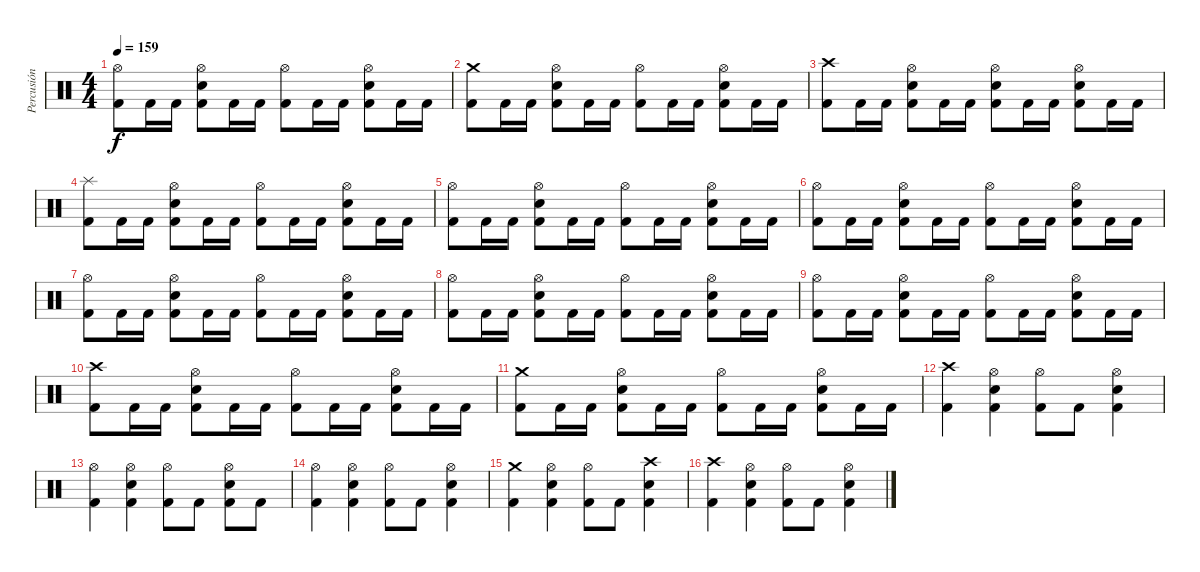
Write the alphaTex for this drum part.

\track ("Percusión" "Percusión") {instrument percussion}
\staff {score}
\articulation defaults
\ts (4 4)
\tempo 159
\clef neutral
\ks c
("Hi-Hat (open)" "Kick (hit) 2").8{dy f} "Kick (hit) 2".16 "Kick (hit) 2".16 ("Hi-Hat (open)" "Electric Snare (hit)" "Kick (hit) 2").8 "Kick (hit) 2".16 "Kick (hit) 2".16 ("Hi-Hat (open)" "Kick (hit) 2").8 "Kick (hit) 2".16 "Kick (hit) 2".16 ("Hi-Hat (open)" "Electric Snare (hit)" "Kick (hit) 2").8 "Kick (hit) 2".16 "Kick (hit) 2".16 |
("Crash medium (hit)" "Kick (hit) 2").8 "Kick (hit) 2".16 "Kick (hit) 2".16 ("Hi-Hat (open)" "Electric Snare (hit)" "Kick (hit) 2").8 "Kick (hit) 2".16 "Kick (hit) 2".16 ("Hi-Hat (open)" "Kick (hit) 2").8 "Kick (hit) 2".16 "Kick (hit) 2".16 ("Hi-Hat (open)" "Electric Snare (hit)" "Kick (hit) 2").8 "Kick (hit) 2".16 "Kick (hit) 2".16 |
("Crash high (hit)" "Kick (hit) 2").8 "Kick (hit) 2".16 "Kick (hit) 2".16 ("Hi-Hat (open)" "Electric Snare (hit)" "Kick (hit) 2").8 "Kick (hit) 2".16 "Kick (hit) 2".16 ("Hi-Hat (open)" "Electric Snare (hit)" "Kick (hit) 2").8 "Kick (hit) 2".16 "Kick (hit) 2".16 ("Hi-Hat (open)" "Electric Snare (hit)" "Kick (hit) 2").8 "Kick (hit) 2".16 "Kick (hit) 2".16 |
("Splash (hit)" "Kick (hit) 2").8 "Kick (hit) 2".16 "Kick (hit) 2".16 ("Hi-Hat (open)" "Electric Snare (hit)" "Kick (hit) 2").8 "Kick (hit) 2".16 "Kick (hit) 2".16 ("Hi-Hat (open)" "Kick (hit) 2").8 "Kick (hit) 2".16 "Kick (hit) 2".16 ("Hi-Hat (open)" "Electric Snare (hit)" "Kick (hit) 2").8 "Kick (hit) 2".16 "Kick (hit) 2".16 |
("Hi-Hat (open)" "Kick (hit) 2").8 "Kick (hit) 2".16 "Kick (hit) 2".16 ("Hi-Hat (open)" "Electric Snare (hit)" "Kick (hit) 2").8 "Kick (hit) 2".16 "Kick (hit) 2".16 ("Hi-Hat (open)" "Kick (hit) 2").8 "Kick (hit) 2".16 "Kick (hit) 2".16 ("Hi-Hat (open)" "Electric Snare (hit)" "Kick (hit) 2").8 "Kick (hit) 2".16 "Kick (hit) 2".16 |
("Hi-Hat (open)" "Kick (hit) 2").8 "Kick (hit) 2".16 "Kick (hit) 2".16 ("Hi-Hat (open)" "Electric Snare (hit)" "Kick (hit) 2").8 "Kick (hit) 2".16 "Kick (hit) 2".16 ("Hi-Hat (open)" "Kick (hit) 2").8 "Kick (hit) 2".16 "Kick (hit) 2".16 ("Hi-Hat (open)" "Electric Snare (hit)" "Kick (hit) 2").8 "Kick (hit) 2".16 "Kick (hit) 2".16 |
("Hi-Hat (open)" "Kick (hit) 2").8 "Kick (hit) 2".16 "Kick (hit) 2".16 ("Hi-Hat (open)" "Electric Snare (hit)" "Kick (hit) 2").8 "Kick (hit) 2".16 "Kick (hit) 2".16 ("Hi-Hat (open)" "Kick (hit) 2").8 "Kick (hit) 2".16 "Kick (hit) 2".16 ("Hi-Hat (open)" "Electric Snare (hit)" "Kick (hit) 2").8 "Kick (hit) 2".16 "Kick (hit) 2".16 |
("Hi-Hat (open)" "Kick (hit) 2").8 "Kick (hit) 2".16 "Kick (hit) 2".16 ("Hi-Hat (open)" "Electric Snare (hit)" "Kick (hit) 2").8 "Kick (hit) 2".16 "Kick (hit) 2".16 ("Hi-Hat (open)" "Kick (hit) 2").8 "Kick (hit) 2".16 "Kick (hit) 2".16 ("Hi-Hat (open)" "Electric Snare (hit)" "Kick (hit) 2").8 "Kick (hit) 2".16 "Kick (hit) 2".16 |
("Hi-Hat (open)" "Kick (hit) 2").8 "Kick (hit) 2".16 "Kick (hit) 2".16 ("Hi-Hat (open)" "Electric Snare (hit)" "Kick (hit) 2").8 "Kick (hit) 2".16 "Kick (hit) 2".16 ("Hi-Hat (open)" "Kick (hit) 2").8 "Kick (hit) 2".16 "Kick (hit) 2".16 ("Hi-Hat (open)" "Electric Snare (hit)" "Kick (hit) 2").8 "Kick (hit) 2".16 "Kick (hit) 2".16 |
("Crash high (hit)" "Kick (hit) 2").8 "Kick (hit) 2".16 "Kick (hit) 2".16 ("Hi-Hat (open)" "Electric Snare (hit)" "Kick (hit) 2").8 "Kick (hit) 2".16 "Kick (hit) 2".16 ("Hi-Hat (open)" "Kick (hit) 2").8 "Kick (hit) 2".16 "Kick (hit) 2".16 ("Hi-Hat (open)" "Electric Snare (hit)" "Kick (hit) 2").8 "Kick (hit) 2".16 "Kick (hit) 2".16 |
("Crash medium (hit)" "Kick (hit) 2").8 "Kick (hit) 2".16 "Kick (hit) 2".16 ("Hi-Hat (open)" "Electric Snare (hit)" "Kick (hit) 2").8 "Kick (hit) 2".16 "Kick (hit) 2".16 ("Hi-Hat (open)" "Kick (hit) 2").8 "Kick (hit) 2".16 "Kick (hit) 2".16 ("Hi-Hat (open)" "Electric Snare (hit)" "Kick (hit) 2").8 "Kick (hit) 2".16 "Kick (hit) 2".16 |
("Crash high (hit)" "Kick (hit) 2").4 ("Hi-Hat (open)" "Electric Snare (hit)" "Kick (hit) 2").4 ("Hi-Hat (open)" "Kick (hit) 2").8 "Kick (hit) 2".8 ("Hi-Hat (open)" "Electric Snare (hit)" "Kick (hit) 2").4 |
("Hi-Hat (open)" "Kick (hit) 2").4 ("Hi-Hat (open)" "Electric Snare (hit)" "Kick (hit) 2").4 ("Hi-Hat (open)" "Kick (hit) 2").8 "Kick (hit) 2".8 ("Hi-Hat (open)" "Electric Snare (hit)" "Kick (hit) 2").8 "Kick (hit) 2".8 |
("Hi-Hat (open)" "Kick (hit) 2").4 ("Hi-Hat (open)" "Electric Snare (hit)" "Kick (hit) 2").4 ("Hi-Hat (open)" "Kick (hit) 2").8 "Kick (hit) 2".8 ("Hi-Hat (open)" "Electric Snare (hit)" "Kick (hit) 2").4 |
("Crash medium (hit)" "Kick (hit) 2").4 ("Hi-Hat (open)" "Electric Snare (hit)" "Kick (hit) 2").4 ("Hi-Hat (open)" "Kick (hit) 2").8 "Kick (hit) 2".8 ("Crash high (hit)" "Electric Snare (hit)" "Kick (hit) 2").4 |
("Crash high (hit)" "Kick (hit) 2").4 ("Hi-Hat (open)" "Electric Snare (hit)" "Kick (hit) 2").4 ("Hi-Hat (open)" "Kick (hit) 2").8 "Kick (hit) 2".8 ("Hi-Hat (open)" "Electric Snare (hit)" "Kick (hit) 2").4
